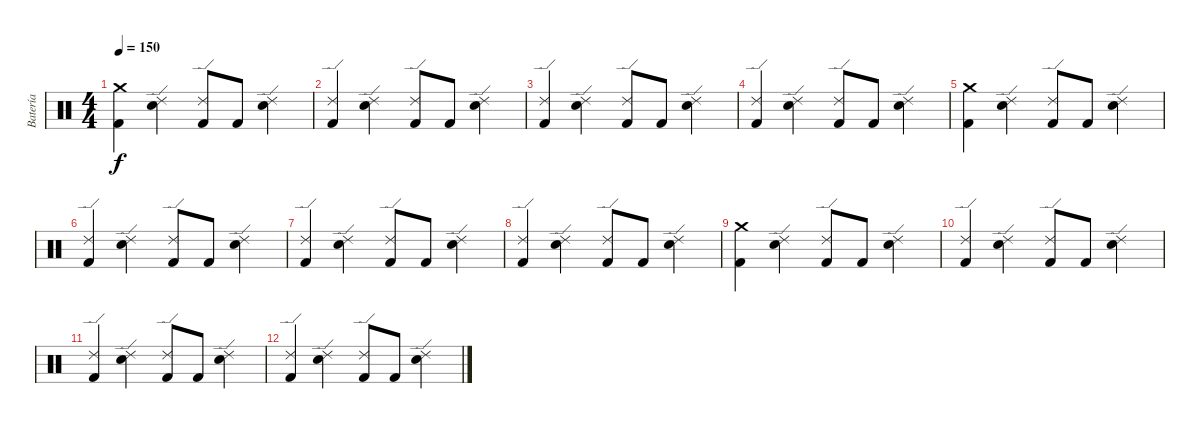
\track ("Batería" "Batería") {instrument percussion}
\staff {score}
\articulation defaults
\ts (4 4)
\tempo 150
\clef neutral
\ks c
("Crash medium (hit)" "Kick (hit) 2").4{dy f} ("Ride (edge) 2" "Electric Snare (hit)").4 ("Ride (edge) 2" "Kick (hit) 2").8 "Kick (hit) 2".8 ("Ride (edge) 2" "Electric Snare (hit)").4 |
("Ride (edge) 2" "Kick (hit) 2").4 ("Ride (edge) 2" "Electric Snare (hit)").4 ("Ride (edge) 2" "Kick (hit) 2").8 "Kick (hit) 2".8 ("Ride (edge) 2" "Electric Snare (hit)").4 |
("Ride (edge) 2" "Kick (hit) 2").4 ("Ride (edge) 2" "Electric Snare (hit)").4 ("Ride (edge) 2" "Kick (hit) 2").8 "Kick (hit) 2".8 ("Ride (edge) 2" "Electric Snare (hit)").4 |
("Ride (edge) 2" "Kick (hit) 2").4 ("Ride (edge) 2" "Electric Snare (hit)").4 ("Ride (edge) 2" "Kick (hit) 2").8 "Kick (hit) 2".8 ("Ride (edge) 2" "Electric Snare (hit)").4 |
("Crash medium (hit)" "Kick (hit) 2").4 ("Ride (edge) 2" "Electric Snare (hit)").4 ("Ride (edge) 2" "Kick (hit) 2").8 "Kick (hit) 2".8 ("Ride (edge) 2" "Electric Snare (hit)").4 |
("Ride (edge) 2" "Kick (hit) 2").4 ("Ride (edge) 2" "Electric Snare (hit)").4 ("Ride (edge) 2" "Kick (hit) 2").8 "Kick (hit) 2".8 ("Ride (edge) 2" "Electric Snare (hit)").4 |
("Ride (edge) 2" "Kick (hit) 2").4 ("Ride (edge) 2" "Electric Snare (hit)").4 ("Ride (edge) 2" "Kick (hit) 2").8 "Kick (hit) 2".8 ("Ride (edge) 2" "Electric Snare (hit)").4 |
("Ride (edge) 2" "Kick (hit) 2").4 ("Ride (edge) 2" "Electric Snare (hit)").4 ("Ride (edge) 2" "Kick (hit) 2").8 "Kick (hit) 2".8 ("Ride (edge) 2" "Electric Snare (hit)").4 |
("Crash medium (hit)" "Kick (hit) 2").4 ("Ride (edge) 2" "Electric Snare (hit)").4 ("Ride (edge) 2" "Kick (hit) 2").8 "Kick (hit) 2".8 ("Ride (edge) 2" "Electric Snare (hit)").4 |
("Ride (edge) 2" "Kick (hit) 2").4 ("Ride (edge) 2" "Electric Snare (hit)").4 ("Ride (edge) 2" "Kick (hit) 2").8 "Kick (hit) 2".8 ("Ride (edge) 2" "Electric Snare (hit)").4 |
("Ride (edge) 2" "Kick (hit) 2").4 ("Ride (edge) 2" "Electric Snare (hit)").4 ("Ride (edge) 2" "Kick (hit) 2").8 "Kick (hit) 2".8 ("Ride (edge) 2" "Electric Snare (hit)").4 |
("Ride (edge) 2" "Kick (hit) 2").4 ("Ride (edge) 2" "Electric Snare (hit)").4 ("Ride (edge) 2" "Kick (hit) 2").8 "Kick (hit) 2".8 ("Ride (edge) 2" "Electric Snare (hit)").4
